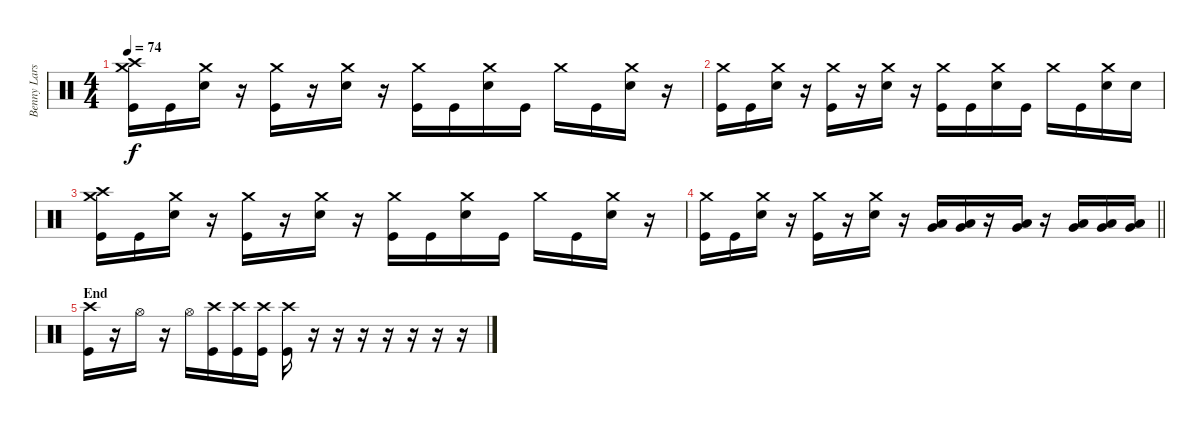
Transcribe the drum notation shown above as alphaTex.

\track ("Benny Larsson" "Benny Lars") {instrument percussion}
\staff {score}
\articulation defaults
\ts (4 4)
\tempo 74
\clef neutral
\ks c
("Crash high (hit)" "Crash medium (hit)" "Kick (hit)").16{dy f} "Kick (hit)".16 ("Crash medium (hit)" "Snare (hit) 2").16 r.16 ("Crash medium (hit)" "Kick (hit)").16 r.16 ("Crash medium (hit)" "Snare (hit) 2").16 r.16 ("Crash medium (hit)" "Kick (hit)").16 "Kick (hit)".16 ("Crash medium (hit)" "Snare (hit) 2").16 "Kick (hit)".16 "Crash medium (hit)".16 "Kick (hit)".16 ("Crash medium (hit)" "Snare (hit) 2").16 r.16 |
("Crash medium (hit)" "Kick (hit)").16 "Kick (hit)".16 ("Crash medium (hit)" "Snare (hit) 2").16 r.16 ("Crash medium (hit)" "Kick (hit)").16 r.16 ("Crash medium (hit)" "Snare (hit) 2").16 r.16 ("Crash medium (hit)" "Kick (hit)").16 "Kick (hit)".16 ("Crash medium (hit)" "Snare (hit) 2").16 "Kick (hit)".16 "Crash medium (hit)".16 "Kick (hit)".16 ("Crash medium (hit)" "Snare (hit) 2").16 "Snare (hit) 2".16 |
("Crash high (hit)" "Crash medium (hit)" "Kick (hit)").16 "Kick (hit)".16 ("Crash medium (hit)" "Snare (hit) 2").16 r.16 ("Crash medium (hit)" "Kick (hit)").16 r.16 ("Crash medium (hit)" "Snare (hit) 2").16 r.16 ("Crash medium (hit)" "Kick (hit)").16 "Kick (hit)".16 ("Crash medium (hit)" "Snare (hit) 2").16 "Kick (hit)".16 "Crash medium (hit)".16 "Kick (hit)".16 ("Crash medium (hit)" "Snare (hit) 2").16 r.16 |
\barLineRight lightlight
("Crash medium (hit)" "Kick (hit)").16 "Kick (hit)".16 ("Crash medium (hit)" "Snare (hit) 2").16 r.16 ("Crash medium (hit)" "Kick (hit)").16 r.16 ("Crash medium (hit)" "Snare (hit) 2").16 r.16 ("Very Low Tom (hit)" "Low Floor Tom (hit)").16 ("Very Low Tom (hit)" "Low Floor Tom (hit)").16 r.16 ("Very Low Tom (hit)" "Low Floor Tom (hit)").16 r.16 ("Low Tom (hit)" "Very Low Tom (hit)").16 ("Low Tom (hit)" "Very Low Tom (hit)").16 ("Low Tom (hit)" "Very Low Tom (hit)").16 |
\section ("" "End")
("Crash high (hit)" "Kick (hit)").16 r.16 "Hi-Hat (open)".16 r.16 "Hi-Hat (open)".16 ("Crash high (hit)" "Kick (hit)").16 ("Crash high (hit)" "Kick (hit)").16 ("Crash high (hit)" "Kick (hit)").16 ("Crash high (hit)" "Kick (hit)").16 r.16 r.16 r.16 r.16 r.16 r.16 r.16
